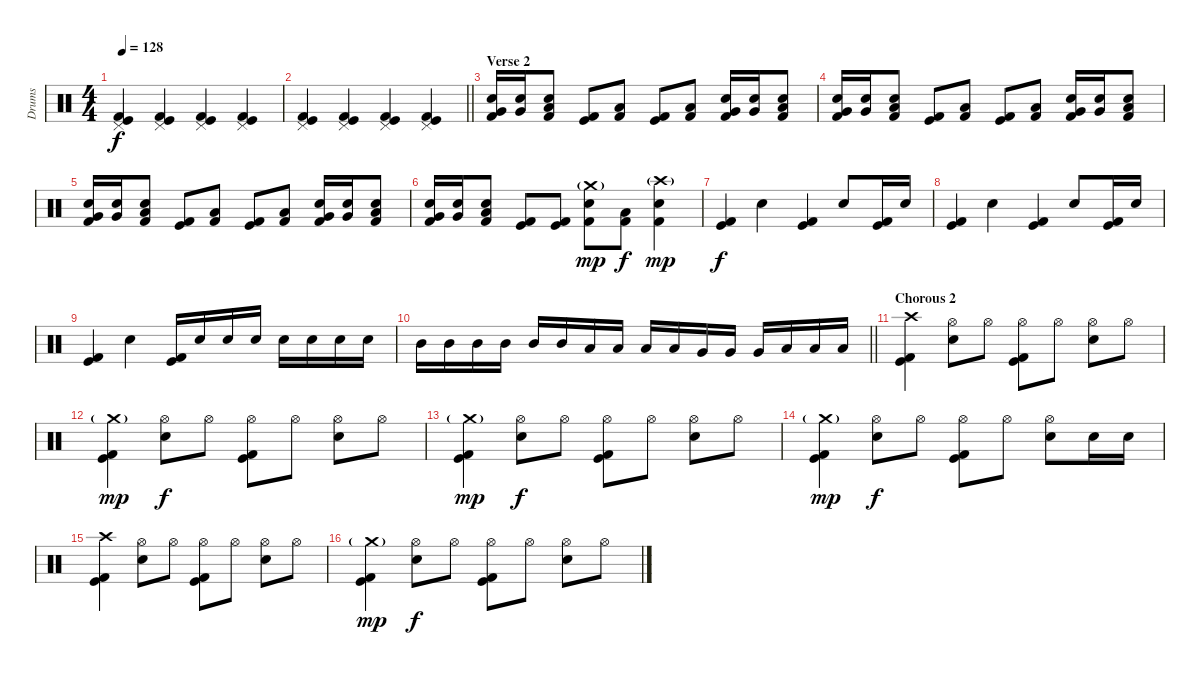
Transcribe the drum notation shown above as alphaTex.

\track ("Drums" "Drums") {instrument percussion}
\staff {score}
\articulation defaults
\ts (4 4)
\section ("" "")
\tempo 128
\clef neutral
\ks c
("Pedal Hi-Hat (hit)" "Kick (hit)" "Kick (hit) 2").4{dy f} ("Pedal Hi-Hat (hit)" "Kick (hit)" "Kick (hit) 2").4 ("Pedal Hi-Hat (hit)" "Kick (hit)" "Kick (hit) 2").4 ("Pedal Hi-Hat (hit)" "Kick (hit)" "Kick (hit) 2").4 |
\barLineRight lightlight
("Pedal Hi-Hat (hit)" "Kick (hit)" "Kick (hit) 2").4 ("Pedal Hi-Hat (hit)" "Kick (hit)" "Kick (hit) 2").4 ("Pedal Hi-Hat (hit)" "Kick (hit)" "Kick (hit) 2").4 ("Pedal Hi-Hat (hit)" "Kick (hit)" "Kick (hit) 2").4 |
\section ("" "Verse 2")
("Kick (hit) 2" "Electric Snare (hit)" "Very Low Tom (hit)").16 ("Electric Snare (hit)" "Very Low Tom (hit)").16 ("Kick (hit) 2" "Electric Snare (hit)" "Low Floor Tom (hit)").8 ("Kick (hit) 2" "Kick (hit)").8 ("Kick (hit) 2" "Low Floor Tom (hit)").8 ("Kick (hit) 2" "Kick (hit)").8 ("Kick (hit) 2" "Low Floor Tom (hit)").8 ("Kick (hit) 2" "Electric Snare (hit)" "Very Low Tom (hit)").16 ("Electric Snare (hit)" "Very Low Tom (hit)").16 ("Kick (hit) 2" "Electric Snare (hit)" "Low Floor Tom (hit)").8 |
("Kick (hit) 2" "Electric Snare (hit)" "Very Low Tom (hit)").16 ("Electric Snare (hit)" "Very Low Tom (hit)").16 ("Kick (hit) 2" "Electric Snare (hit)" "Low Floor Tom (hit)").8 ("Kick (hit) 2" "Kick (hit)").8 ("Kick (hit) 2" "Low Floor Tom (hit)").8 ("Kick (hit) 2" "Kick (hit)").8 ("Kick (hit) 2" "Low Floor Tom (hit)").8 ("Kick (hit) 2" "Electric Snare (hit)" "Very Low Tom (hit)").16 ("Electric Snare (hit)" "Very Low Tom (hit)").16 ("Kick (hit) 2" "Electric Snare (hit)" "Low Floor Tom (hit)").8 |
("Kick (hit) 2" "Electric Snare (hit)" "Very Low Tom (hit)").16 ("Electric Snare (hit)" "Very Low Tom (hit)").16 ("Kick (hit) 2" "Electric Snare (hit)" "Low Floor Tom (hit)").8 ("Kick (hit) 2" "Kick (hit)").8 ("Kick (hit) 2" "Low Floor Tom (hit)").8 ("Kick (hit) 2" "Kick (hit)").8 ("Kick (hit) 2" "Low Floor Tom (hit)").8 ("Kick (hit) 2" "Electric Snare (hit)" "Very Low Tom (hit)").16 ("Electric Snare (hit)" "Very Low Tom (hit)").16 ("Kick (hit) 2" "Electric Snare (hit)" "Low Floor Tom (hit)").8 |
("Kick (hit) 2" "Electric Snare (hit)" "Very Low Tom (hit)").16 ("Electric Snare (hit)" "Very Low Tom (hit)").16 ("Kick (hit) 2" "Electric Snare (hit)" "Low Floor Tom (hit)").8 ("Kick (hit) 2" "Kick (hit)").8 ("Kick (hit) 2" "Kick (hit)").8 ("Crash medium (hit)"{g} "Kick (hit) 2" "Electric Snare (hit)").8{dy mp} ("Kick (hit) 2" "Low Floor Tom (hit)").8{dy f} ("Crash high (hit)"{g} "Kick (hit) 2" "Electric Snare (hit)").4{dy mp} |
("Kick (hit) 2" "Kick (hit)").4{dy f} "Electric Snare (hit)".4 ("Kick (hit) 2" "Kick (hit)").4 "Electric Snare (hit)".8 ("Kick (hit)" "Kick (hit) 2").16 "Electric Snare (hit)".16 |
("Kick (hit) 2" "Kick (hit)").4 "Electric Snare (hit)".4 ("Kick (hit) 2" "Kick (hit)").4 "Electric Snare (hit)".8 ("Kick (hit)" "Kick (hit) 2").16 "Electric Snare (hit)".16 |
("Kick (hit) 2" "Kick (hit)").4 "Electric Snare (hit)".4 ("Kick (hit) 2" "Kick (hit)").16 "Electric Snare (hit)".16 "Electric Snare (hit)".16 "Electric Snare (hit)".16 "Electric Snare (hit)".16 "Electric Snare (hit)".16 "Electric Snare (hit)".16 "Electric Snare (hit)".16 |
\barLineRight lightlight "Mid Tom (hit)".16 "Mid Tom (hit)".16 "Mid Tom (hit)".16 "Mid Tom (hit)".16 "Mid Tom (hit)".16 "Mid Tom (hit)".16 "Low Tom (hit)".16 "Low Tom (hit)".16 "Low Tom (hit)".16 "Low Tom (hit)".16 "Very Low Tom (hit)".16 "Very Low Tom (hit)".16 "Very Low Tom (hit)".16 "Low Floor Tom (hit)".16 "Low Floor Tom (hit)".16 "Low Floor Tom (hit)".16
|
\section ("" "Chorous 2")
("Crash high (hit)" "Kick (hit)" "Kick (hit) 2").4 ("Hi-Hat (open)" "Electric Snare (hit)").8 "Hi-Hat (open)".8 ("Hi-Hat (open)" "Kick (hit)" "Kick (hit) 2").8 "Hi-Hat (open)".8 ("Hi-Hat (open)" "Electric Snare (hit)").8 "Hi-Hat (open)".8 |
("Crash medium (hit)"{g} "Kick (hit)" "Kick (hit) 2").4{dy mp} ("Hi-Hat (open)" "Electric Snare (hit)").8{dy f} "Hi-Hat (open)".8 ("Hi-Hat (open)" "Kick (hit)" "Kick (hit) 2").8 "Hi-Hat (open)".8 ("Hi-Hat (open)" "Electric Snare (hit)").8 "Hi-Hat (open)".8 |
("Crash medium (hit)"{g} "Kick (hit)" "Kick (hit) 2").4{dy mp} ("Hi-Hat (open)" "Electric Snare (hit)").8{dy f} "Hi-Hat (open)".8 ("Hi-Hat (open)" "Kick (hit)" "Kick (hit) 2").8 "Hi-Hat (open)".8 ("Hi-Hat (open)" "Electric Snare (hit)").8 "Hi-Hat (open)".8 |
("Crash medium (hit)"{g} "Kick (hit)" "Kick (hit) 2").4{dy mp} ("Hi-Hat (open)" "Electric Snare (hit)").8{dy f} "Hi-Hat (open)".8 ("Hi-Hat (open)" "Kick (hit)" "Kick (hit) 2").8 "Hi-Hat (open)".8 ("Hi-Hat (open)" "Electric Snare (hit)").8 "Electric Snare (hit)".16 "Electric Snare (hit)".16 |
("Crash high (hit)" "Kick (hit)" "Kick (hit) 2").4 ("Hi-Hat (open)" "Electric Snare (hit)").8 "Hi-Hat (open)".8 ("Hi-Hat (open)" "Kick (hit)" "Kick (hit) 2").8 "Hi-Hat (open)".8 ("Hi-Hat (open)" "Electric Snare (hit)").8 "Hi-Hat (open)".8 |
("Crash medium (hit)"{g} "Kick (hit)" "Kick (hit) 2").4{dy mp} ("Hi-Hat (open)" "Electric Snare (hit)").8{dy f} "Hi-Hat (open)".8 ("Hi-Hat (open)" "Kick (hit)" "Kick (hit) 2").8 "Hi-Hat (open)".8 ("Hi-Hat (open)" "Electric Snare (hit)").8 "Hi-Hat (open)".8
